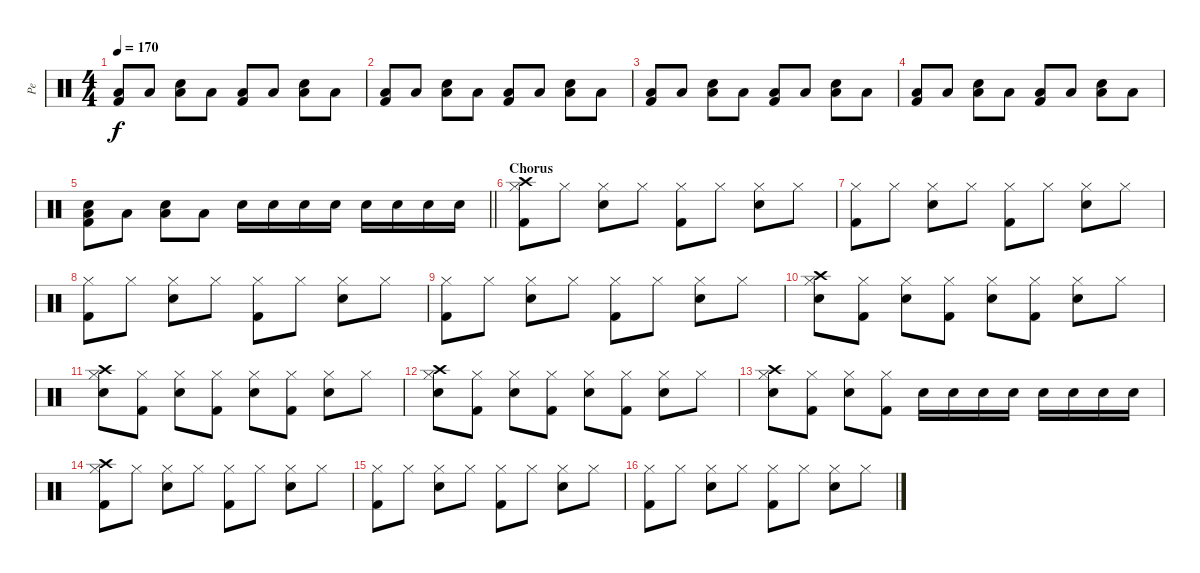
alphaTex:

\track ("Pe" "Pe") {instrument percussion}
\staff {score}
\articulation defaults
\ts (4 4)
\tempo 170
\clef neutral
\ks c
("Low Floor Tom (hit)" "Kick (hit) 2").8{dy f} "Low Floor Tom (hit)".8 ("Snare (hit) 2" "Low Floor Tom (hit)").8 "Low Floor Tom (hit)".8 ("Low Floor Tom (hit)" "Kick (hit) 2").8 "Low Floor Tom (hit)".8 ("Snare (hit) 2" "Low Floor Tom (hit)").8 "Low Floor Tom (hit)".8 |
("Low Floor Tom (hit)" "Kick (hit) 2").8 "Low Floor Tom (hit)".8 ("Snare (hit) 2" "Low Floor Tom (hit)").8 "Low Floor Tom (hit)".8 ("Low Floor Tom (hit)" "Kick (hit) 2").8 "Low Floor Tom (hit)".8 ("Snare (hit) 2" "Low Floor Tom (hit)").8 "Low Floor Tom (hit)".8 |
("Low Floor Tom (hit)" "Kick (hit) 2").8 "Low Floor Tom (hit)".8 ("Snare (hit) 2" "Low Floor Tom (hit)").8 "Low Floor Tom (hit)".8 ("Low Floor Tom (hit)" "Kick (hit) 2").8 "Low Floor Tom (hit)".8 ("Snare (hit) 2" "Low Floor Tom (hit)").8 "Low Floor Tom (hit)".8 |
("Low Floor Tom (hit)" "Kick (hit) 2").8 "Low Floor Tom (hit)".8 ("Snare (hit) 2" "Low Floor Tom (hit)").8 "Low Floor Tom (hit)".8 ("Low Floor Tom (hit)" "Kick (hit) 2").8 "Low Floor Tom (hit)".8 ("Snare (hit) 2" "Low Floor Tom (hit)").8 "Low Floor Tom (hit)".8 |
\barLineRight lightlight
("Snare (hit) 2" "Low Floor Tom (hit)" "Kick (hit) 2").8 "Low Floor Tom (hit)".8 ("Snare (hit) 2" "Low Floor Tom (hit)").8 "Low Floor Tom (hit)".8 "Snare (hit) 2".16 "Snare (hit) 2".16 "Snare (hit) 2".16 "Snare (hit) 2".16 "Snare (hit) 2".16 "Snare (hit) 2".16 "Snare (hit) 2".16 "Snare (hit) 2".16 |
\section ("" "Chorus")
("Crash high (hit)" "Hi-Hat (closed)" "Kick (hit) 2").8 "Hi-Hat (closed)".8 ("Hi-Hat (closed)" "Snare (hit) 2").8 "Hi-Hat (closed)".8 ("Hi-Hat (closed)" "Kick (hit) 2").8 "Hi-Hat (closed)".8 ("Hi-Hat (closed)" "Snare (hit) 2").8 "Hi-Hat (closed)".8 |
("Hi-Hat (closed)" "Kick (hit) 2").8 "Hi-Hat (closed)".8 ("Hi-Hat (closed)" "Snare (hit) 2").8 "Hi-Hat (closed)".8 ("Hi-Hat (closed)" "Kick (hit) 2").8 "Hi-Hat (closed)".8 ("Hi-Hat (closed)" "Snare (hit) 2").8 "Hi-Hat (closed)".8 |
("Hi-Hat (closed)" "Kick (hit) 2").8 "Hi-Hat (closed)".8 ("Hi-Hat (closed)" "Snare (hit) 2").8 "Hi-Hat (closed)".8 ("Hi-Hat (closed)" "Kick (hit) 2").8 "Hi-Hat (closed)".8 ("Hi-Hat (closed)" "Snare (hit) 2").8 "Hi-Hat (closed)".8 |
("Hi-Hat (closed)" "Kick (hit) 2").8 "Hi-Hat (closed)".8 ("Hi-Hat (closed)" "Snare (hit) 2").8 "Hi-Hat (closed)".8 ("Hi-Hat (closed)" "Kick (hit) 2").8 "Hi-Hat (closed)".8 ("Hi-Hat (closed)" "Snare (hit) 2").8 "Hi-Hat (closed)".8 |
("Crash high (hit)" "Hi-Hat (closed)" "Snare (hit) 2").8 ("Hi-Hat (closed)" "Kick (hit) 2").8 ("Hi-Hat (closed)" "Snare (hit) 2").8 ("Hi-Hat (closed)" "Kick (hit) 2").8 ("Hi-Hat (closed)" "Snare (hit) 2").8 ("Hi-Hat (closed)" "Kick (hit) 2").8 ("Hi-Hat (closed)" "Snare (hit) 2").8 "Hi-Hat (closed)".8 |
("Crash high (hit)" "Hi-Hat (closed)" "Snare (hit) 2").8 ("Hi-Hat (closed)" "Kick (hit) 2").8 ("Hi-Hat (closed)" "Snare (hit) 2").8 ("Hi-Hat (closed)" "Kick (hit) 2").8 ("Hi-Hat (closed)" "Snare (hit) 2").8 ("Hi-Hat (closed)" "Kick (hit) 2").8 ("Hi-Hat (closed)" "Snare (hit) 2").8 "Hi-Hat (closed)".8 |
("Crash high (hit)" "Hi-Hat (closed)" "Snare (hit) 2").8 ("Hi-Hat (closed)" "Kick (hit) 2").8 ("Hi-Hat (closed)" "Snare (hit) 2").8 ("Hi-Hat (closed)" "Kick (hit) 2").8 ("Hi-Hat (closed)" "Snare (hit) 2").8 ("Hi-Hat (closed)" "Kick (hit) 2").8 ("Hi-Hat (closed)" "Snare (hit) 2").8 "Hi-Hat (closed)".8 |
("Crash high (hit)" "Hi-Hat (closed)" "Snare (hit) 2").8 ("Hi-Hat (closed)" "Kick (hit) 2").8 ("Hi-Hat (closed)" "Snare (hit) 2").8 ("Hi-Hat (closed)" "Kick (hit) 2").8 "Snare (hit) 2".16 "Snare (hit) 2".16 "Snare (hit) 2".16 "Snare (hit) 2".16 "Snare (hit) 2".16 "Snare (hit) 2".16 "Snare (hit) 2".16 "Snare (hit) 2".16 |
("Crash high (hit)" "Hi-Hat (closed)" "Kick (hit) 2").8 "Hi-Hat (closed)".8 ("Hi-Hat (closed)" "Snare (hit) 2").8 "Hi-Hat (closed)".8 ("Hi-Hat (closed)" "Kick (hit) 2").8 "Hi-Hat (closed)".8 ("Hi-Hat (closed)" "Snare (hit) 2").8 "Hi-Hat (closed)".8 |
("Hi-Hat (closed)" "Kick (hit) 2").8 "Hi-Hat (closed)".8 ("Hi-Hat (closed)" "Snare (hit) 2").8 "Hi-Hat (closed)".8 ("Hi-Hat (closed)" "Kick (hit) 2").8 "Hi-Hat (closed)".8 ("Hi-Hat (closed)" "Snare (hit) 2").8 "Hi-Hat (closed)".8 |
("Hi-Hat (closed)" "Kick (hit) 2").8 "Hi-Hat (closed)".8 ("Hi-Hat (closed)" "Snare (hit) 2").8 "Hi-Hat (closed)".8 ("Hi-Hat (closed)" "Kick (hit) 2").8 "Hi-Hat (closed)".8 ("Hi-Hat (closed)" "Snare (hit) 2").8 "Hi-Hat (closed)".8
